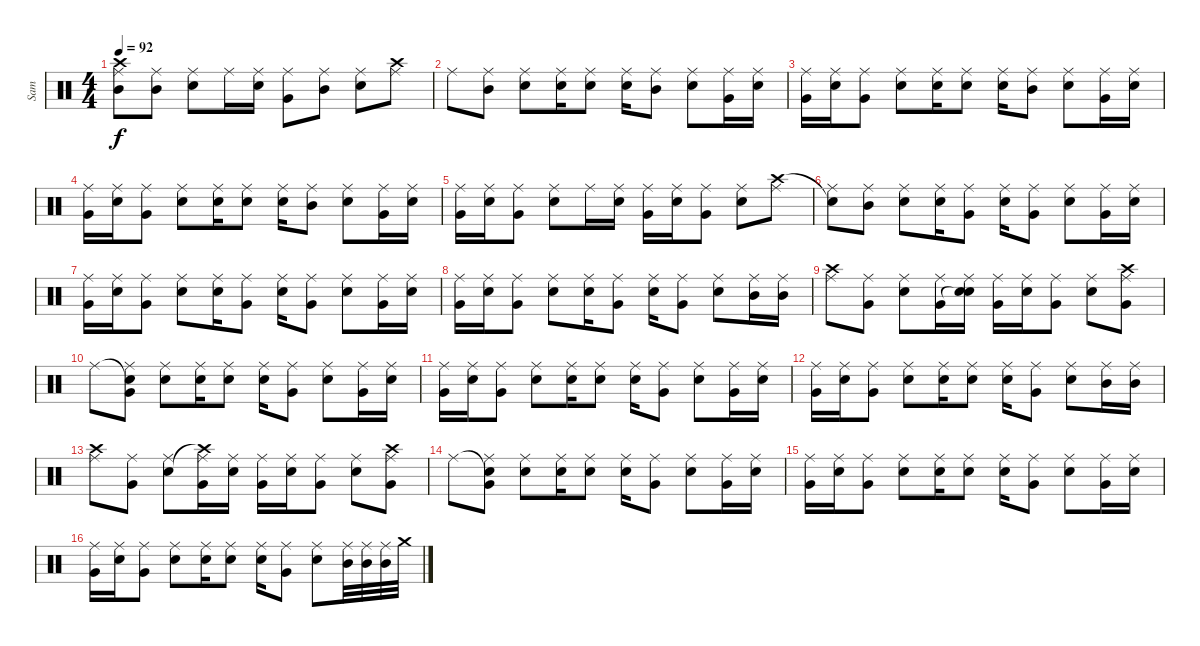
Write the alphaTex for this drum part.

\track ("Sam" "Sam") {instrument percussion}
\staff {score}
\articulation defaults
\ts (4 4)
\tempo 92
\clef neutral
\ks c
("Crash high (hit)" "Mid Tom (hit)" "Ride (middle)").8{dy f} ("Mid Tom (hit)" "Ride (middle)").8 ("Electric Snare (hit)" "Ride (middle)").8 "Ride (middle)".16 ("Electric Snare (hit)" "Ride (middle)").16 ("Very Low Tom (hit)" "Ride (middle)").8 ("Mid Tom (hit)" "Ride (middle)").8 ("Electric Snare (hit)" "Ride (middle)").8 ("Crash high (hit)" "Ride (middle)").8 |
"Ride (middle)".8 ("Mid Tom (hit)" "Ride (middle)").8 ("Electric Snare (hit)" "Ride (middle)").8 ("Electric Snare (hit)" "Ride (middle)").16 ("Electric Snare (hit)" "Ride (middle)").8 ("Electric Snare (hit)" "Ride (middle)").16 ("Mid Tom (hit)" "Ride (middle)").8 ("Electric Snare (hit)" "Ride (middle)").8 ("Very Low Tom (hit)" "Ride (middle)").16 ("Electric Snare (hit)" "Ride (middle)").16 |
("Very Low Tom (hit)" "Ride (middle)").16 ("Electric Snare (hit)" "Ride (middle)").16 ("Very Low Tom (hit)" "Ride (middle)").8 ("Electric Snare (hit)" "Ride (middle)").8 ("Electric Snare (hit)" "Ride (middle)").16 ("Electric Snare (hit)" "Ride (middle)").8 ("Electric Snare (hit)" "Ride (middle)").16 ("Mid Tom (hit)" "Ride (middle)").8 ("Electric Snare (hit)" "Ride (middle)").8 ("Very Low Tom (hit)" "Ride (middle)").16 ("Electric Snare (hit)" "Ride (middle)").16 |
("Very Low Tom (hit)" "Ride (middle)").16 ("Electric Snare (hit)" "Ride (middle)").16 ("Very Low Tom (hit)" "Ride (middle)").8 ("Electric Snare (hit)" "Ride (middle)").8 ("Electric Snare (hit)" "Ride (middle)").16 ("Electric Snare (hit)" "Ride (middle)").8 ("Electric Snare (hit)" "Ride (middle)").16 ("Mid Tom (hit)" "Ride (middle)").8 ("Electric Snare (hit)" "Ride (middle)").8 ("Very Low Tom (hit)" "Ride (middle)").16 ("Electric Snare (hit)" "Ride (middle)").16 |
("Very Low Tom (hit)" "Ride (middle)").16 ("Electric Snare (hit)" "Ride (middle)").16 ("Very Low Tom (hit)" "Ride (middle)").8 ("Electric Snare (hit)" "Ride (middle)").8 "Ride (middle)".16 ("Electric Snare (hit)" "Ride (middle)").16 ("Very Low Tom (hit)" "Ride (middle)").16 ("Electric Snare (hit)" "Ride (middle)").16 ("Very Low Tom (hit)" "Ride (middle)").8 ("Electric Snare (hit)" "Ride (middle)").8 ("Crash high (hit)" "Ride (middle)").8 |
("Snare (hit)"{t} "Ride (middle)").8 ("Mid Tom (hit)" "Ride (middle)").8 ("Electric Snare (hit)" "Ride (middle)").8 ("Electric Snare (hit)" "Ride (middle)").16 ("Very Low Tom (hit)" "Ride (middle)").8 ("Electric Snare (hit)" "Ride (middle)").16 ("Very Low Tom (hit)" "Ride (middle)").8 ("Electric Snare (hit)" "Ride (middle)").8 ("Very Low Tom (hit)" "Ride (middle)").16 ("Electric Snare (hit)" "Ride (middle)").16 |
("Very Low Tom (hit)" "Ride (middle)").16 ("Electric Snare (hit)" "Ride (middle)").16 ("Very Low Tom (hit)" "Ride (middle)").8 ("Electric Snare (hit)" "Ride (middle)").8 ("Electric Snare (hit)" "Ride (middle)").16 ("Very Low Tom (hit)" "Ride (middle)").8 ("Electric Snare (hit)" "Ride (middle)").16 ("Very Low Tom (hit)" "Ride (middle)").8 ("Electric Snare (hit)" "Ride (middle)").8 ("Very Low Tom (hit)" "Ride (middle)").16 ("Electric Snare (hit)" "Ride (middle)").16 |
("Very Low Tom (hit)" "Ride (middle)").16 ("Electric Snare (hit)" "Ride (middle)").16 ("Very Low Tom (hit)" "Ride (middle)").8 ("Electric Snare (hit)" "Ride (middle)").8 ("Electric Snare (hit)" "Ride (middle)").16 ("Very Low Tom (hit)" "Ride (middle)").8 ("Electric Snare (hit)" "Ride (middle)").16 ("Very Low Tom (hit)" "Ride (middle)").8 ("Electric Snare (hit)" "Ride (middle)").8 ("Mid Tom (hit)" "Ride (middle)").16 ("Mid Tom (hit)" "Ride (middle)").16 |
("Crash high (hit)" "Ride (middle)").8 ("Very Low Tom (hit)" "Ride (middle)").8 ("Electric Snare (hit)" "Ride (middle)").8 ("Very Low Tom (hit)" "Ride (middle)").16 ("Snare (hit)"{t} "Electric Snare (hit)" "Ride (middle)").16 ("Very Low Tom (hit)" "Ride (middle)").16 ("Electric Snare (hit)" "Ride (middle)").16 ("Very Low Tom (hit)" "Ride (middle)").8 ("Electric Snare (hit)" "Ride (middle)").8 ("Crash high (hit)" "Very Low Tom (hit)" "Ride (middle)").8 |
"Ride (middle)".8 ("Snare (hit)"{t} "Very Low Tom (hit)" "Ride (middle)").8 ("Electric Snare (hit)" "Ride (middle)").8 ("Electric Snare (hit)" "Ride (middle)").16 ("Electric Snare (hit)" "Ride (middle)").8 ("Electric Snare (hit)" "Ride (middle)").16 ("Very Low Tom (hit)" "Ride (middle)").8 ("Electric Snare (hit)" "Ride (middle)").8 ("Very Low Tom (hit)" "Ride (middle)").16 ("Electric Snare (hit)" "Ride (middle)").16 |
("Very Low Tom (hit)" "Ride (middle)").16 ("Electric Snare (hit)" "Ride (middle)").16 ("Very Low Tom (hit)" "Ride (middle)").8 ("Electric Snare (hit)" "Ride (middle)").8 ("Electric Snare (hit)" "Ride (middle)").16 ("Electric Snare (hit)" "Ride (middle)").8 ("Electric Snare (hit)" "Ride (middle)").16 ("Very Low Tom (hit)" "Ride (middle)").8 ("Electric Snare (hit)" "Ride (middle)").8 ("Very Low Tom (hit)" "Ride (middle)").16 ("Electric Snare (hit)" "Ride (middle)").16 |
("Very Low Tom (hit)" "Ride (middle)").16 ("Electric Snare (hit)" "Ride (middle)").16 ("Very Low Tom (hit)" "Ride (middle)").8 ("Electric Snare (hit)" "Ride (middle)").8 ("Electric Snare (hit)" "Ride (middle)").16 ("Electric Snare (hit)" "Ride (middle)").8 ("Electric Snare (hit)" "Ride (middle)").16 ("Very Low Tom (hit)" "Ride (middle)").8 ("Electric Snare (hit)" "Ride (middle)").8 ("Mid Tom (hit)" "Ride (middle)").16 ("Mid Tom (hit)" "Ride (middle)").16 |
("Crash high (hit)" "Ride (middle)").8 ("Very Low Tom (hit)" "Ride (middle)").8 ("Electric Snare (hit)" "Ride (middle)").8 ("Crash high (hit)"{t} "Very Low Tom (hit)" "Ride (middle)").16 ("Electric Snare (hit)" "Ride (middle)").16 ("Very Low Tom (hit)" "Ride (middle)").16 ("Electric Snare (hit)" "Ride (middle)").16 ("Very Low Tom (hit)" "Ride (middle)").8 ("Electric Snare (hit)" "Ride (middle)").8 ("Crash high (hit)" "Very Low Tom (hit)" "Ride (middle)").8 |
"Ride (middle)".8 ("Snare (hit)"{t} "Very Low Tom (hit)" "Ride (middle)").8 ("Electric Snare (hit)" "Ride (middle)").8 ("Electric Snare (hit)" "Ride (middle)").16 ("Electric Snare (hit)" "Ride (middle)").8 ("Electric Snare (hit)" "Ride (middle)").16 ("Very Low Tom (hit)" "Ride (middle)").8 ("Electric Snare (hit)" "Ride (middle)").8 ("Very Low Tom (hit)" "Ride (middle)").16 ("Electric Snare (hit)" "Ride (middle)").16 |
("Very Low Tom (hit)" "Ride (middle)").16 ("Electric Snare (hit)" "Ride (middle)").16 ("Very Low Tom (hit)" "Ride (middle)").8 ("Electric Snare (hit)" "Ride (middle)").8 ("Electric Snare (hit)" "Ride (middle)").16 ("Electric Snare (hit)" "Ride (middle)").8 ("Electric Snare (hit)" "Ride (middle)").16 ("Very Low Tom (hit)" "Ride (middle)").8 ("Electric Snare (hit)" "Ride (middle)").8 ("Very Low Tom (hit)" "Ride (middle)").16 ("Electric Snare (hit)" "Ride (middle)").16 |
("Very Low Tom (hit)" "Ride (middle)").16 ("Electric Snare (hit)" "Ride (middle)").16 ("Very Low Tom (hit)" "Ride (middle)").8 ("Electric Snare (hit)" "Ride (middle)").8 ("Electric Snare (hit)" "Ride (middle)").16 ("Electric Snare (hit)" "Ride (middle)").8 ("Electric Snare (hit)" "Ride (middle)").16 ("Very Low Tom (hit)" "Ride (middle)").8 ("Electric Snare (hit)" "Ride (middle)").8 ("Mid Tom (hit)" "Ride (middle)").32 ("Mid Tom (hit)" "Ride (middle)").32 ("Mid Tom (hit)" "Ride (middle)").32 "Crash medium (hit)".32
